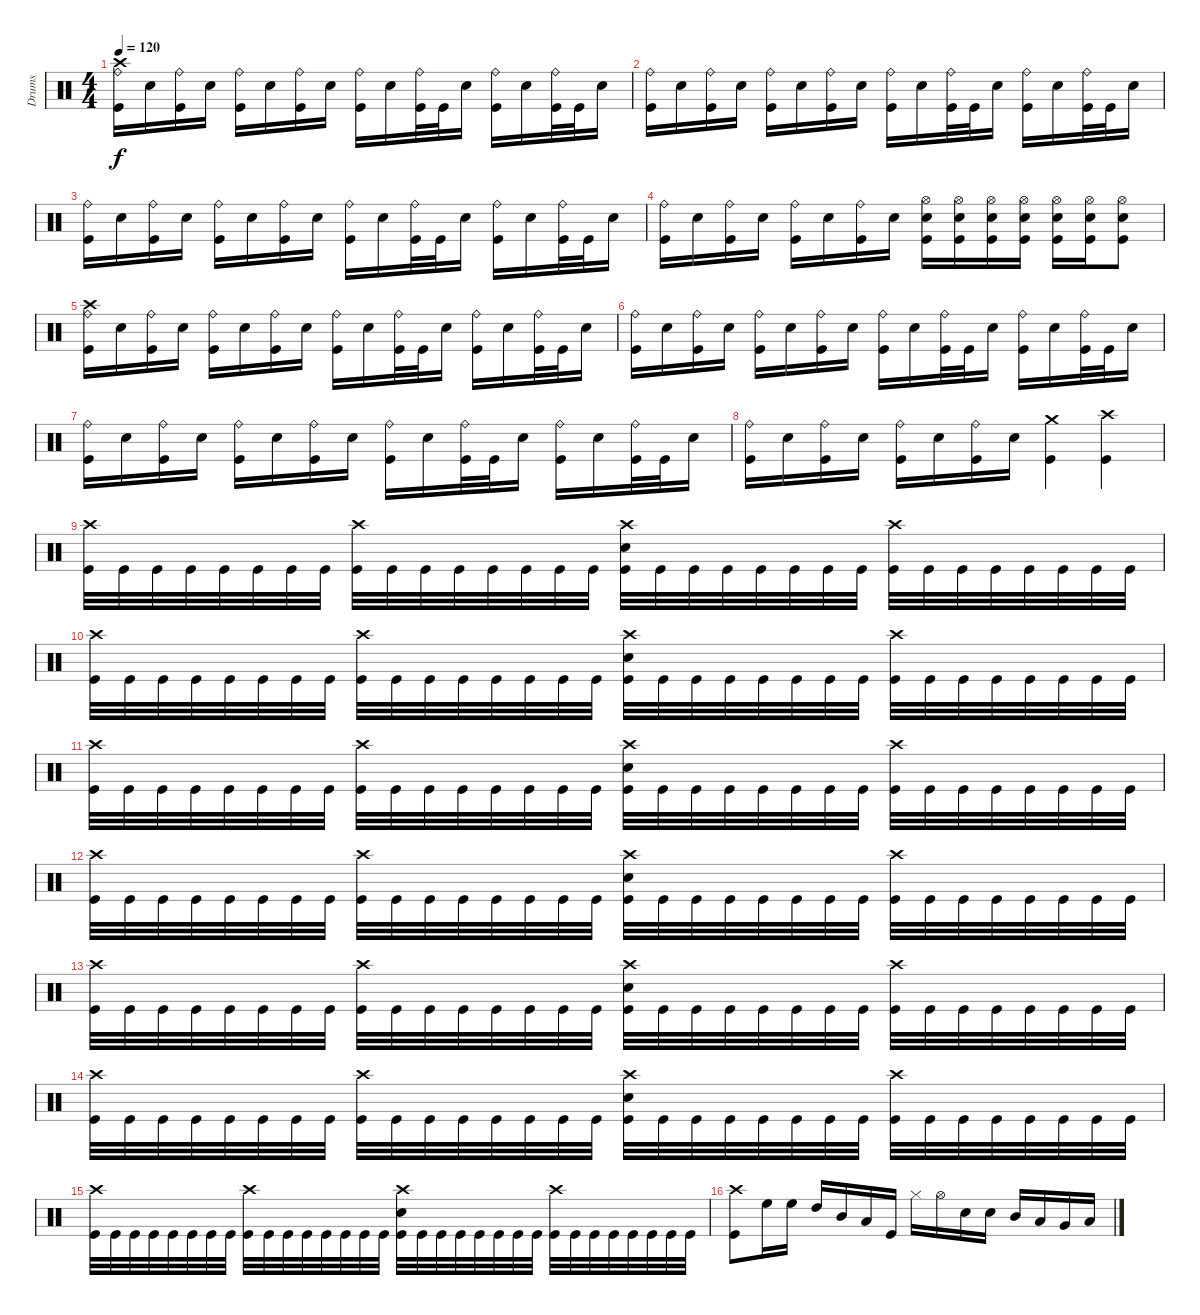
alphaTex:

\track ("Drums" "Drums") {instrument percussion}
\staff {score}
\articulation defaults
\ts (4 4)
\tempo 120
\clef neutral
\ks c
("Crash high (hit)" "Ride (bell)" "Kick (hit)").16{dy f} "Snare (hit) 2".16 ("Ride (bell)" "Kick (hit)").16 "Snare (hit) 2".16 ("Ride (bell)" "Kick (hit)").16 "Snare (hit) 2".16 ("Ride (bell)" "Kick (hit)").16 "Snare (hit) 2".16 ("Ride (bell)" "Kick (hit)").16 "Snare (hit) 2".16 ("Ride (bell)" "Kick (hit)").32 "Kick (hit)".32 "Snare (hit) 2".16 ("Ride (bell)" "Kick (hit)").16 "Snare (hit) 2".16 ("Ride (bell)" "Kick (hit)").32 "Kick (hit)".32 "Snare (hit) 2".16 |
("Ride (bell)" "Kick (hit)").16 "Snare (hit) 2".16 ("Ride (bell)" "Kick (hit)").16 "Snare (hit) 2".16 ("Ride (bell)" "Kick (hit)").16 "Snare (hit) 2".16 ("Ride (bell)" "Kick (hit)").16 "Snare (hit) 2".16 ("Ride (bell)" "Kick (hit)").16 "Snare (hit) 2".16 ("Ride (bell)" "Kick (hit)").32 "Kick (hit)".32 "Snare (hit) 2".16 ("Ride (bell)" "Kick (hit)").16 "Snare (hit) 2".16 ("Ride (bell)" "Kick (hit)").32 "Kick (hit)".32 "Snare (hit) 2".16 |
("Ride (bell)" "Kick (hit)").16 "Snare (hit) 2".16 ("Ride (bell)" "Kick (hit)").16 "Snare (hit) 2".16 ("Ride (bell)" "Kick (hit)").16 "Snare (hit) 2".16 ("Ride (bell)" "Kick (hit)").16 "Snare (hit) 2".16 ("Ride (bell)" "Kick (hit)").16 "Snare (hit) 2".16 ("Ride (bell)" "Kick (hit)").32 "Kick (hit)".32 "Snare (hit) 2".16 ("Ride (bell)" "Kick (hit)").16 "Snare (hit) 2".16 ("Ride (bell)" "Kick (hit)").32 "Kick (hit)".32 "Snare (hit) 2".16 |
("Ride (bell)" "Kick (hit)").16 "Snare (hit) 2".16 ("Ride (bell)" "Kick (hit)").16 "Snare (hit) 2".16 ("Ride (bell)" "Kick (hit)").16 "Snare (hit) 2".16 ("Ride (bell)" "Kick (hit)").16 "Snare (hit) 2".16 ("Hi-Hat (open)" "Snare (hit) 2" "Kick (hit)").16 ("Hi-Hat (open)" "Snare (hit) 2" "Kick (hit)").16 ("Hi-Hat (open)" "Snare (hit) 2" "Kick (hit)").16 ("Hi-Hat (open)" "Snare (hit) 2" "Kick (hit)").16 ("Hi-Hat (open)" "Snare (hit) 2" "Kick (hit)").16 ("Hi-Hat (open)" "Snare (hit) 2" "Kick (hit)").16 ("Hi-Hat (open)" "Snare (hit) 2" "Kick (hit)").8 |
("Crash high (hit)" "Ride (bell)" "Kick (hit)").16 "Snare (hit) 2".16 ("Ride (bell)" "Kick (hit)").16 "Snare (hit) 2".16 ("Ride (bell)" "Kick (hit)").16 "Snare (hit) 2".16 ("Ride (bell)" "Kick (hit)").16 "Snare (hit) 2".16 ("Ride (bell)" "Kick (hit)").16 "Snare (hit) 2".16 ("Ride (bell)" "Kick (hit)").32 "Kick (hit)".32 "Snare (hit) 2".16 ("Ride (bell)" "Kick (hit)").16 "Snare (hit) 2".16 ("Ride (bell)" "Kick (hit)").32 "Kick (hit)".32 "Snare (hit) 2".16 |
("Ride (bell)" "Kick (hit)").16 "Snare (hit) 2".16 ("Ride (bell)" "Kick (hit)").16 "Snare (hit) 2".16 ("Ride (bell)" "Kick (hit)").16 "Snare (hit) 2".16 ("Ride (bell)" "Kick (hit)").16 "Snare (hit) 2".16 ("Ride (bell)" "Kick (hit)").16 "Snare (hit) 2".16 ("Ride (bell)" "Kick (hit)").32 "Kick (hit)".32 "Snare (hit) 2".16 ("Ride (bell)" "Kick (hit)").16 "Snare (hit) 2".16 ("Ride (bell)" "Kick (hit)").32 "Kick (hit)".32 "Snare (hit) 2".16 |
("Ride (bell)" "Kick (hit)").16 "Snare (hit) 2".16 ("Ride (bell)" "Kick (hit)").16 "Snare (hit) 2".16 ("Ride (bell)" "Kick (hit)").16 "Snare (hit) 2".16 ("Ride (bell)" "Kick (hit)").16 "Snare (hit) 2".16 ("Ride (bell)" "Kick (hit)").16 "Snare (hit) 2".16 ("Ride (bell)" "Kick (hit)").32 "Kick (hit)".32 "Snare (hit) 2".16 ("Ride (bell)" "Kick (hit)").16 "Snare (hit) 2".16 ("Ride (bell)" "Kick (hit)").32 "Kick (hit)".32 "Snare (hit) 2".16 |
("Ride (bell)" "Kick (hit)").16 "Snare (hit) 2".16 ("Ride (bell)" "Kick (hit)").16 "Snare (hit) 2".16 ("Ride (bell)" "Kick (hit)").16 "Snare (hit) 2".16 ("Ride (bell)" "Kick (hit)").16 "Snare (hit) 2".16 ("Crash medium (hit)" "Kick (hit)").4 ("Crash high (hit)" "Kick (hit)").4 |
("Crash high (hit)" "Kick (hit)").32 "Kick (hit)".32 "Kick (hit)".32 "Kick (hit)".32 "Kick (hit)".32 "Kick (hit)".32 "Kick (hit)".32 "Kick (hit)".32 ("Crash high (hit)" "Kick (hit)").32 "Kick (hit)".32 "Kick (hit)".32 "Kick (hit)".32 "Kick (hit)".32 "Kick (hit)".32 "Kick (hit)".32 "Kick (hit)".32 ("Crash high (hit)" "Snare (hit) 2" "Kick (hit)").32 "Kick (hit)".32 "Kick (hit)".32 "Kick (hit)".32 "Kick (hit)".32 "Kick (hit)".32 "Kick (hit)".32 "Kick (hit)".32 ("Crash high (hit)" "Kick (hit)").32 "Kick (hit)".32 "Kick (hit)".32 "Kick (hit)".32 "Kick (hit)".32 "Kick (hit)".32 "Kick (hit)".32 "Kick (hit)".32 |
("Crash high (hit)" "Kick (hit)").32 "Kick (hit)".32 "Kick (hit)".32 "Kick (hit)".32 "Kick (hit)".32 "Kick (hit)".32 "Kick (hit)".32 "Kick (hit)".32 ("Crash high (hit)" "Kick (hit)").32 "Kick (hit)".32 "Kick (hit)".32 "Kick (hit)".32 "Kick (hit)".32 "Kick (hit)".32 "Kick (hit)".32 "Kick (hit)".32 ("Crash high (hit)" "Snare (hit) 2" "Kick (hit)").32 "Kick (hit)".32 "Kick (hit)".32 "Kick (hit)".32 "Kick (hit)".32 "Kick (hit)".32 "Kick (hit)".32 "Kick (hit)".32 ("Crash high (hit)" "Kick (hit)").32 "Kick (hit)".32 "Kick (hit)".32 "Kick (hit)".32 "Kick (hit)".32 "Kick (hit)".32 "Kick (hit)".32 "Kick (hit)".32 |
("Crash high (hit)" "Kick (hit)").32 "Kick (hit)".32 "Kick (hit)".32 "Kick (hit)".32 "Kick (hit)".32 "Kick (hit)".32 "Kick (hit)".32 "Kick (hit)".32 ("Crash high (hit)" "Kick (hit)").32 "Kick (hit)".32 "Kick (hit)".32 "Kick (hit)".32 "Kick (hit)".32 "Kick (hit)".32 "Kick (hit)".32 "Kick (hit)".32 ("Crash high (hit)" "Snare (hit) 2" "Kick (hit)").32 "Kick (hit)".32 "Kick (hit)".32 "Kick (hit)".32 "Kick (hit)".32 "Kick (hit)".32 "Kick (hit)".32 "Kick (hit)".32 ("Crash high (hit)" "Kick (hit)").32 "Kick (hit)".32 "Kick (hit)".32 "Kick (hit)".32 "Kick (hit)".32 "Kick (hit)".32 "Kick (hit)".32 "Kick (hit)".32 |
("Crash high (hit)" "Kick (hit)").32 "Kick (hit)".32 "Kick (hit)".32 "Kick (hit)".32 "Kick (hit)".32 "Kick (hit)".32 "Kick (hit)".32 "Kick (hit)".32 ("Crash high (hit)" "Kick (hit)").32 "Kick (hit)".32 "Kick (hit)".32 "Kick (hit)".32 "Kick (hit)".32 "Kick (hit)".32 "Kick (hit)".32 "Kick (hit)".32 ("Crash high (hit)" "Snare (hit) 2" "Kick (hit)").32 "Kick (hit)".32 "Kick (hit)".32 "Kick (hit)".32 "Kick (hit)".32 "Kick (hit)".32 "Kick (hit)".32 "Kick (hit)".32 ("Crash high (hit)" "Kick (hit)").32 "Kick (hit)".32 "Kick (hit)".32 "Kick (hit)".32 "Kick (hit)".32 "Kick (hit)".32 "Kick (hit)".32 "Kick (hit)".32 |
("Crash high (hit)" "Kick (hit)").32 "Kick (hit)".32 "Kick (hit)".32 "Kick (hit)".32 "Kick (hit)".32 "Kick (hit)".32 "Kick (hit)".32 "Kick (hit)".32 ("Crash high (hit)" "Kick (hit)").32 "Kick (hit)".32 "Kick (hit)".32 "Kick (hit)".32 "Kick (hit)".32 "Kick (hit)".32 "Kick (hit)".32 "Kick (hit)".32 ("Crash high (hit)" "Snare (hit) 2" "Kick (hit)").32 "Kick (hit)".32 "Kick (hit)".32 "Kick (hit)".32 "Kick (hit)".32 "Kick (hit)".32 "Kick (hit)".32 "Kick (hit)".32 ("Crash high (hit)" "Kick (hit)").32 "Kick (hit)".32 "Kick (hit)".32 "Kick (hit)".32 "Kick (hit)".32 "Kick (hit)".32 "Kick (hit)".32 "Kick (hit)".32 |
("Crash high (hit)" "Kick (hit)").32 "Kick (hit)".32 "Kick (hit)".32 "Kick (hit)".32 "Kick (hit)".32 "Kick (hit)".32 "Kick (hit)".32 "Kick (hit)".32 ("Crash high (hit)" "Kick (hit)").32 "Kick (hit)".32 "Kick (hit)".32 "Kick (hit)".32 "Kick (hit)".32 "Kick (hit)".32 "Kick (hit)".32 "Kick (hit)".32 ("Crash high (hit)" "Snare (hit) 2" "Kick (hit)").32 "Kick (hit)".32 "Kick (hit)".32 "Kick (hit)".32 "Kick (hit)".32 "Kick (hit)".32 "Kick (hit)".32 "Kick (hit)".32 ("Crash high (hit)" "Kick (hit)").32 "Kick (hit)".32 "Kick (hit)".32 "Kick (hit)".32 "Kick (hit)".32 "Kick (hit)".32 "Kick (hit)".32 "Kick (hit)".32 |
("Crash high (hit)" "Kick (hit)").32 "Kick (hit)".32 "Kick (hit)".32 "Kick (hit)".32 "Kick (hit)".32 "Kick (hit)".32 "Kick (hit)".32 "Kick (hit)".32 ("Crash high (hit)" "Kick (hit)").32 "Kick (hit)".32 "Kick (hit)".32 "Kick (hit)".32 "Kick (hit)".32 "Kick (hit)".32 "Kick (hit)".32 "Kick (hit)".32 ("Crash high (hit)" "Snare (hit) 2" "Kick (hit)").32 "Kick (hit)".32 "Kick (hit)".32 "Kick (hit)".32 "Kick (hit)".32 "Kick (hit)".32 "Kick (hit)".32 "Kick (hit)".32 ("Crash high (hit)" "Kick (hit)").32 "Kick (hit)".32 "Kick (hit)".32 "Kick (hit)".32 "Kick (hit)".32 "Kick (hit)".32 "Kick (hit)".32 "Kick (hit)".32 |
("Crash high (hit)" "Kick (hit)").8 "High Floor Tom (hit)".16 "High Floor Tom (hit)".16 "High Tom (hit)".16 "Mid Tom (hit)".16 "Low Tom (hit)".16 "Kick (hit)".16 "Hi-Hat (closed)".16 "Hi-Hat (open)".16 "Snare (hit) 2".16 "Snare (hit) 2".16 "Mid Tom (hit)".16 "Low Tom (hit)".16 "Very Low Tom (hit)".16 "Low Floor Tom (hit)".16
